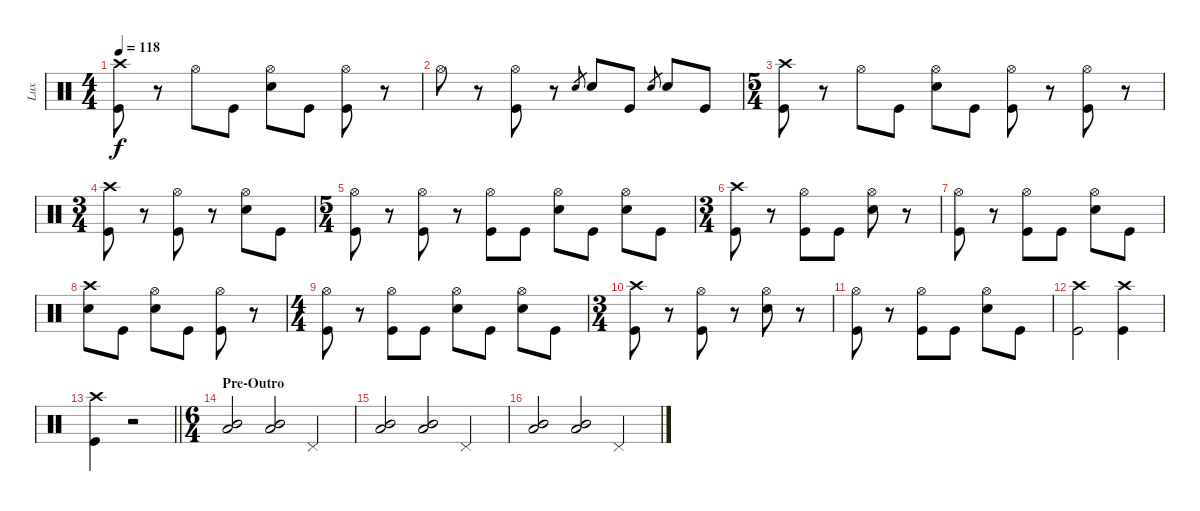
\track ("Lux" "Lux") {instrument percussion}
\staff {score}
\articulation defaults
\ts (4 4)
\tempo 118
\clef neutral
\ks c
("Crash high (hit)" "Kick (hit)").8{dy f} r.8 "Hi-Hat (open)".8 "Kick (hit)".8 ("Hi-Hat (open)" "Snare (hit) 2").8 "Kick (hit)".8 ("Hi-Hat (open)" "Kick (hit)").8 r.8 |
"Hi-Hat (open)".8 r.8 ("Hi-Hat (open)" "Kick (hit)").8 r.8 "Snare (hit) 2".8{gr} "Snare (hit) 2".8 "Kick (hit)".8 "Snare (hit) 2".8{gr} "Snare (hit) 2".8 "Kick (hit)".8 |
\ts (5 4)
("Crash high (hit)" "Kick (hit)").8 r.8 "Hi-Hat (open)".8 "Kick (hit)".8 ("Hi-Hat (open)" "Snare (hit) 2").8 "Kick (hit)".8 ("Hi-Hat (open)" "Kick (hit)").8 r.8 ("Hi-Hat (open)" "Kick (hit)").8 r.8 |
\ts (3 4)
("Crash high (hit)" "Kick (hit)").8 r.8 ("Hi-Hat (open)" "Kick (hit)").8 r.8 ("Hi-Hat (open)" "Snare (hit) 2").8 "Kick (hit)".8 |
\ts (5 4)
("Hi-Hat (open)" "Kick (hit)").8 r.8 ("Hi-Hat (open)" "Kick (hit)").8 r.8 ("Hi-Hat (open)" "Kick (hit)").8 "Kick (hit)".8 ("Hi-Hat (open)" "Snare (hit) 2").8 "Kick (hit)".8 ("Hi-Hat (open)" "Snare (hit) 2").8 "Kick (hit)".8 |
\ts (3 4)
("Crash high (hit)" "Kick (hit)").8 r.8 ("Hi-Hat (open)" "Kick (hit)").8 "Kick (hit)".8 ("Hi-Hat (open)" "Snare (hit) 2").8 r.8 |
("Hi-Hat (open)" "Kick (hit)").8 r.8 ("Hi-Hat (open)" "Kick (hit)").8 "Kick (hit)".8 ("Hi-Hat (open)" "Snare (hit) 2").8 "Kick (hit)".8 |
("Crash high (hit)" "Snare (hit) 2").8 "Kick (hit)".8 ("Hi-Hat (open)" "Snare (hit) 2").8 "Kick (hit)".8 ("Hi-Hat (open)" "Kick (hit)").8 r.8 |
\ts (4 4)
("Hi-Hat (open)" "Kick (hit)").8 r.8 ("Hi-Hat (open)" "Kick (hit)").8 "Kick (hit)".8 ("Hi-Hat (open)" "Snare (hit) 2").8 "Kick (hit)".8 ("Hi-Hat (open)" "Snare (hit) 2").8 "Kick (hit)".8 |
\ts (3 4)
("Crash high (hit)" "Kick (hit)").8 r.8 ("Hi-Hat (open)" "Kick (hit)").8 r.8 ("Hi-Hat (open)" "Snare (hit) 2").8 r.8 |
("Hi-Hat (open)" "Kick (hit)").8 r.8 ("Hi-Hat (open)" "Kick (hit)").8 "Kick (hit)".8 ("Hi-Hat (open)" "Snare (hit) 2").8 "Kick (hit)".8 |
("Crash high (hit)" "Kick (hit)").2 ("Crash high (hit)" "Kick (hit)").4 |
\barLineRight lightlight
("Crash high (hit)" "Kick (hit)").4 r.2 |
\ts (6 4)
\section ("" "Pre-Outro")
("Mid Tom (hit)" "Low Tom (hit)").2 ("Mid Tom (hit)" "Low Tom (hit)").2 "Pedal Hi-Hat (hit)".2 |
("Mid Tom (hit)" "Low Tom (hit)").2 ("Mid Tom (hit)" "Low Tom (hit)").2 "Pedal Hi-Hat (hit)".2 |
("Mid Tom (hit)" "Low Tom (hit)").2 ("Mid Tom (hit)" "Low Tom (hit)").2 "Pedal Hi-Hat (hit)".2
